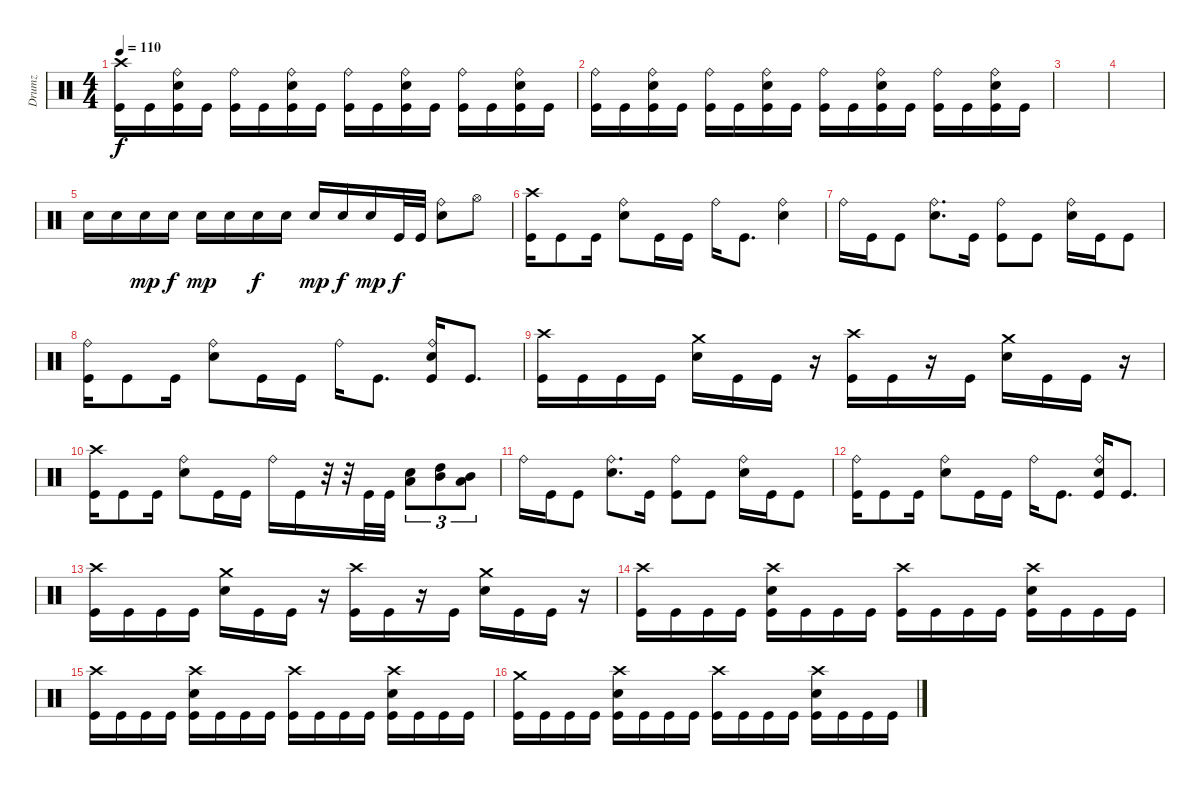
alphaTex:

\track ("Drumz" "Drumz") {instrument percussion}
\staff {score}
\articulation defaults
\ts (4 4)
\tempo 110
\clef neutral
\ks c
("Crash high (hit)" "Kick (hit)").16{dy f} "Kick (hit)".16 ("Kick (hit)" "Ride (bell)" "Snare (hit) 2").16 "Kick (hit)".16 ("Kick (hit)" "Ride (bell)").16 "Kick (hit)".16 ("Kick (hit)" "Ride (bell)" "Snare (hit) 2").16 "Kick (hit)".16 ("Kick (hit)" "Ride (bell)").16 "Kick (hit)".16 ("Kick (hit)" "Ride (bell)" "Snare (hit) 2").16 "Kick (hit)".16 ("Kick (hit)" "Ride (bell)").16 "Kick (hit)".16 ("Kick (hit)" "Ride (bell)" "Snare (hit) 2").16 "Kick (hit)".16 |
("Kick (hit)" "Ride (bell)").16 "Kick (hit)".16 ("Kick (hit)" "Ride (bell)" "Snare (hit) 2").16 "Kick (hit)".16 ("Kick (hit)" "Ride (bell)").16 "Kick (hit)".16 ("Kick (hit)" "Ride (bell)" "Snare (hit) 2").16 "Kick (hit)".16 ("Kick (hit)" "Ride (bell)").16 "Kick (hit)".16 ("Kick (hit)" "Ride (bell)" "Snare (hit) 2").16 "Kick (hit)".16 ("Kick (hit)" "Ride (bell)").16 "Kick (hit)".16 ("Kick (hit)" "Ride (bell)" "Snare (hit) 2").16 "Kick (hit)".16 |
|
|
"Snare (hit) 2".16 "Snare (hit) 2".16 "Snare (hit) 2".16{dy mp} "Snare (hit) 2".16{dy f} "Snare (hit) 2".16{dy mp} "Snare (hit) 2".16 "Snare (hit) 2".16{dy f} "Snare (hit) 2".16 "Snare (hit) 2".16{dy mp} "Snare (hit) 2".16{dy f} "Snare (hit) 2".16{dy mp} "Kick (hit)".32{dy f} "Kick (hit)".32 ("Ride (bell)" "Snare (hit) 2").8 "Hi-Hat (open)".8 |
("Crash high (hit)" "Kick (hit)").16 "Kick (hit)".8 "Kick (hit)".16 ("Snare (hit) 2" "Ride (bell)").8 "Kick (hit)".16 "Kick (hit)".16 "Ride (bell)".16 "Kick (hit)".8{d} ("Snare (hit) 2" "Ride (bell)").4 |
"Ride (bell)".16 "Kick (hit)".16 "Kick (hit)".8 ("Snare (hit) 2" "Ride (bell)").8{d} "Kick (hit)".16 ("Kick (hit)" "Ride (bell)").8 "Kick (hit)".8 ("Snare (hit) 2" "Ride (bell)").16 "Kick (hit)".16 "Kick (hit)".8 |
("Ride (bell)" "Kick (hit)").16 "Kick (hit)".8 "Kick (hit)".16 ("Snare (hit) 2" "Ride (bell)").8 "Kick (hit)".16 "Kick (hit)".16 "Ride (bell)".16 "Kick (hit)".8{d} ("Snare (hit) 2" "Ride (bell)" "Kick (hit)").16 "Kick (hit)".8{d} |
("Kick (hit)" "Crash high (hit)").16 "Kick (hit)".16 "Kick (hit)".16 "Kick (hit)".16 ("Snare (hit) 2" "Crash medium (hit)").16 "Kick (hit)".16 "Kick (hit)".16 r.16 ("Kick (hit)" "Crash high (hit)").16 "Kick (hit)".16 r.16 "Kick (hit)".16 ("Snare (hit) 2" "Crash medium (hit)").16 "Kick (hit)".16 "Kick (hit)".16 r.16 |
("Crash high (hit)" "Kick (hit)").16 "Kick (hit)".8 "Kick (hit)".16 ("Snare (hit) 2" "Ride (bell)").8 "Kick (hit)".16 "Kick (hit)".16 "Ride (bell)".16 "Kick (hit)".16 r.32 r.32 "Kick (hit)".32 "Kick (hit)".32 ("Snare (hit) 2" "Low Tom (hit)").8{tu (3 2)} ("Mid Tom (hit)" "High Tom (hit)").8{tu (3 2)} ("Low Tom (hit)" "Mid Tom (hit)").8{tu (3 2)} |
"Ride (bell)".16 "Kick (hit)".16 "Kick (hit)".8 ("Snare (hit) 2" "Ride (bell)").8{d} "Kick (hit)".16 ("Kick (hit)" "Ride (bell)").8 "Kick (hit)".8 ("Snare (hit) 2" "Ride (bell)").16 "Kick (hit)".16 "Kick (hit)".8 |
("Ride (bell)" "Kick (hit)").16 "Kick (hit)".8 "Kick (hit)".16 ("Snare (hit) 2" "Ride (bell)").8 "Kick (hit)".16 "Kick (hit)".16 "Ride (bell)".16 "Kick (hit)".8{d} ("Snare (hit) 2" "Ride (bell)" "Kick (hit)").16 "Kick (hit)".8{d} |
("Kick (hit)" "Crash high (hit)").16 "Kick (hit)".16 "Kick (hit)".16 "Kick (hit)".16 ("Snare (hit) 2" "Crash medium (hit)").16 "Kick (hit)".16 "Kick (hit)".16 r.16 ("Kick (hit)" "Crash high (hit)").16 "Kick (hit)".16 r.16 "Kick (hit)".16 ("Snare (hit) 2" "Crash medium (hit)").16 "Kick (hit)".16 "Kick (hit)".16 r.16 |
("Kick (hit)" "Crash high (hit)").16 "Kick (hit)".16 "Kick (hit)".16 "Kick (hit)".16 ("Snare (hit) 2" "Kick (hit)" "Crash high (hit)").16 "Kick (hit)".16 "Kick (hit)".16 "Kick (hit)".16 ("Kick (hit)" "Crash high (hit)").16 "Kick (hit)".16 "Kick (hit)".16 "Kick (hit)".16 ("Snare (hit) 2" "Kick (hit)" "Crash high (hit)").16 "Kick (hit)".16 "Kick (hit)".16 "Kick (hit)".16 |
("Kick (hit)" "Crash high (hit)").16 "Kick (hit)".16 "Kick (hit)".16 "Kick (hit)".16 ("Snare (hit) 2" "Kick (hit)" "Crash high (hit)").16 "Kick (hit)".16 "Kick (hit)".16 "Kick (hit)".16 ("Kick (hit)" "Crash high (hit)").16 "Kick (hit)".16 "Kick (hit)".16 "Kick (hit)".16 ("Snare (hit) 2" "Kick (hit)" "Crash high (hit)").16 "Kick (hit)".16 "Kick (hit)".16 "Kick (hit)".16 |
("Kick (hit)" "Crash medium (hit)").16 "Kick (hit)".16 "Kick (hit)".16 "Kick (hit)".16 ("Snare (hit) 2" "Kick (hit)" "Crash high (hit)").16 "Kick (hit)".16 "Kick (hit)".16 "Kick (hit)".16 ("Kick (hit)" "Crash high (hit)").16 "Kick (hit)".16 "Kick (hit)".16 "Kick (hit)".16 ("Snare (hit) 2" "Kick (hit)" "Crash high (hit)").16 "Kick (hit)".16 "Kick (hit)".16 "Kick (hit)".16
